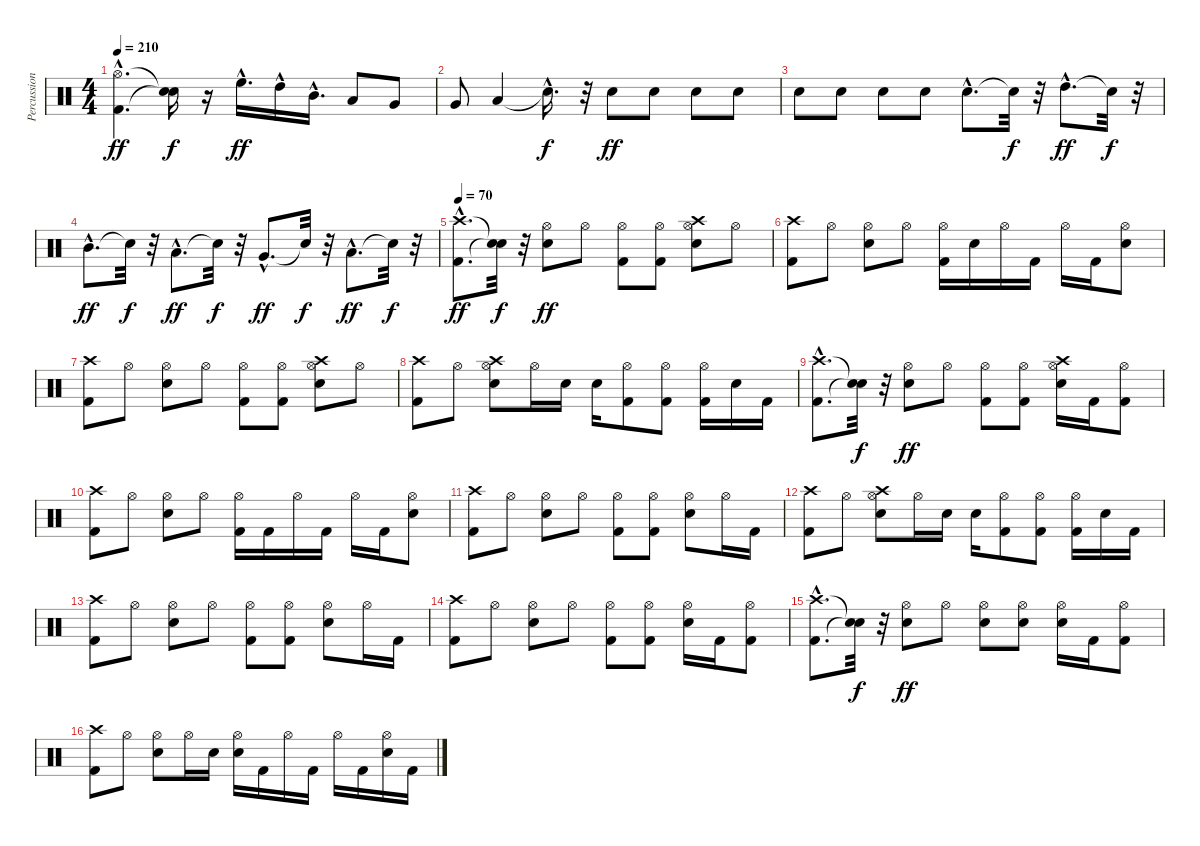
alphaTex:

\track ("Percussions" "Percussion") {instrument percussion}
\staff {score}
\articulation defaults
\ts (4 4)
\tempo 210
\clef neutral
\ks c
("Kick (hit) 2"{hac} "Hi-Hat (open)"{hac}).4{d dy ff} ("Snare (hit)"{t} "Snare (hit)"{t}).16{dy f} r.16 "High Floor Tom (hit)"{hac}.16{d dy ff} "High Tom (hit)"{hac}.16 "Mid Tom (hit)"{hac}.16{d} "Low Tom (hit)".8 "Very Low Tom (hit)".8 |
"Very Low Tom (hit)".8 "Low Floor Tom (hit)".4 "Snare (hit)"{hac t}.16{d dy f} r.32 "Snare (hit) 2".8{dy ff} "Snare (hit) 2".8 "Snare (hit) 2".8 "Snare (hit) 2".8 |
"Snare (hit) 2".8 "Snare (hit) 2".8 "Snare (hit) 2".8 "Snare (hit) 2".8 "Snare (hit) 2"{hac}.8{d} "Snare (hit)"{t}.32{dy f} r.32 "High Tom (hit)"{hac}.8{d dy ff} "Snare (hit)"{t}.32{dy f} r.32 |
"Mid Tom (hit)"{hac}.8{d dy ff} "Snare (hit)"{t}.32{dy f} r.32 "Low Tom (hit)"{hac}.8{d dy ff} "Snare (hit)"{t}.32{dy f} r.32 "Very Low Tom (hit)"{hac}.8{d dy ff} "Snare (hit)"{t}.32{dy f} r.32 "Low Floor Tom (hit)"{hac}.8{d dy ff} "Snare (hit)"{t}.32{dy f} r.32 |
\tempo 70
("Kick (hit) 2"{hac} "Crash high (hit)"{hac}).8{d dy ff} ("Snare (hit)"{t} "Snare (hit)"{t}).32{dy f} r.32 ("Snare (hit) 2" "Hi-Hat (open)").8{dy ff} "Hi-Hat (open)".8 ("Kick (hit) 2" "Hi-Hat (open)").8 ("Kick (hit) 2" "Hi-Hat (open)").8 ("Snare (hit) 2" "Hi-Hat (open)" "Crash high (hit)").8 "Hi-Hat (open)".8 |
("Kick (hit) 2" "Crash high (hit)").8 "Hi-Hat (open)".8 ("Snare (hit) 2" "Hi-Hat (open)").8 "Hi-Hat (open)".8 ("Kick (hit) 2" "Hi-Hat (open)").16 "Snare (hit) 2".16 "Hi-Hat (open)".16 "Kick (hit) 2".16 "Hi-Hat (open)".16 "Kick (hit) 2".16 ("Snare (hit) 2" "Hi-Hat (open)").8 |
("Kick (hit) 2" "Crash high (hit)").8 "Hi-Hat (open)".8 ("Snare (hit) 2" "Hi-Hat (open)").8 "Hi-Hat (open)".8 ("Kick (hit) 2" "Hi-Hat (open)").8 ("Kick (hit) 2" "Hi-Hat (open)").8 ("Snare (hit) 2" "Hi-Hat (open)" "Crash high (hit)").8 "Hi-Hat (open)".8 |
("Kick (hit) 2" "Crash high (hit)").8 "Hi-Hat (open)".8 ("Snare (hit) 2" "Hi-Hat (open)" "Crash high (hit)").8 "Hi-Hat (open)".16 "Snare (hit) 2".16 "Snare (hit) 2".16 ("Kick (hit) 2" "Hi-Hat (open)").8 ("Kick (hit) 2" "Hi-Hat (open)").8 ("Kick (hit) 2" "Hi-Hat (open)").16 "Snare (hit) 2".16 "Kick (hit) 2".16 |
("Kick (hit) 2"{hac} "Crash high (hit)"{hac}).8{d} ("Snare (hit)"{t} "Snare (hit)"{t}).32{dy f} r.32 ("Snare (hit) 2" "Hi-Hat (open)").8{dy ff} "Hi-Hat (open)".8 ("Kick (hit) 2" "Hi-Hat (open)").8 ("Kick (hit) 2" "Hi-Hat (open)").8 ("Snare (hit) 2" "Hi-Hat (open)" "Crash high (hit)").16 "Kick (hit) 2".16 ("Kick (hit) 2" "Hi-Hat (open)").8 |
("Kick (hit) 2" "Crash high (hit)").8 "Hi-Hat (open)".8 ("Snare (hit) 2" "Hi-Hat (open)").8 "Hi-Hat (open)".8 ("Kick (hit) 2" "Hi-Hat (open)").16 "Kick (hit) 2".16 "Hi-Hat (open)".16 "Kick (hit) 2".16 "Hi-Hat (open)".16 "Kick (hit) 2".16 ("Snare (hit) 2" "Hi-Hat (open)").8 |
("Kick (hit) 2" "Crash high (hit)").8 "Hi-Hat (open)".8 ("Snare (hit) 2" "Hi-Hat (open)").8 "Hi-Hat (open)".8 ("Kick (hit) 2" "Hi-Hat (open)").8 ("Kick (hit) 2" "Hi-Hat (open)").8 ("Snare (hit) 2" "Hi-Hat (open)").8 "Hi-Hat (open)".16 "Kick (hit) 2".16 |
("Kick (hit) 2" "Crash high (hit)").8 "Hi-Hat (open)".8 ("Snare (hit) 2" "Hi-Hat (open)" "Crash high (hit)").8 "Hi-Hat (open)".16 "Snare (hit) 2".16 "Snare (hit) 2".16 ("Kick (hit) 2" "Hi-Hat (open)").8 ("Kick (hit) 2" "Hi-Hat (open)").8 ("Kick (hit) 2" "Hi-Hat (open)").16 "Snare (hit) 2".16 "Kick (hit) 2".16 |
("Kick (hit) 2" "Crash high (hit)").8 "Hi-Hat (open)".8 ("Snare (hit) 2" "Hi-Hat (open)").8 "Hi-Hat (open)".8 ("Kick (hit) 2" "Hi-Hat (open)").8 ("Kick (hit) 2" "Hi-Hat (open)").8 ("Snare (hit) 2" "Hi-Hat (open)").8 "Hi-Hat (open)".16 "Kick (hit) 2".16 |
("Kick (hit) 2" "Crash high (hit)").8 "Hi-Hat (open)".8 ("Snare (hit) 2" "Hi-Hat (open)").8 "Hi-Hat (open)".8 ("Kick (hit) 2" "Hi-Hat (open)").8 ("Kick (hit) 2" "Hi-Hat (open)").8 ("Snare (hit) 2" "Hi-Hat (open)").16 "Kick (hit) 2".16 ("Kick (hit) 2" "Hi-Hat (open)").8 |
("Kick (hit) 2"{hac} "Crash high (hit)"{hac}).8{d} ("Snare (hit)"{t} "Snare (hit)"{t}).32{dy f} r.32 ("Snare (hit) 2" "Hi-Hat (open)").8{dy ff} "Hi-Hat (open)".8 ("Snare (hit) 2" "Hi-Hat (open)").8 ("Snare (hit) 2" "Hi-Hat (open)").8 ("Snare (hit) 2" "Hi-Hat (open)").16 "Kick (hit) 2".16 ("Kick (hit) 2" "Hi-Hat (open)").8 |
("Kick (hit) 2" "Crash high (hit)").8 "Hi-Hat (open)".8 ("Snare (hit) 2" "Hi-Hat (open)").8 "Hi-Hat (open)".16 "Snare (hit) 2".16 ("Snare (hit) 2" "Hi-Hat (open)").16 "Kick (hit) 2".16 "Hi-Hat (open)".16 "Kick (hit) 2".16 "Hi-Hat (open)".16 "Kick (hit) 2".16 ("Snare (hit) 2" "Hi-Hat (open)").16 "Kick (hit) 2".16
